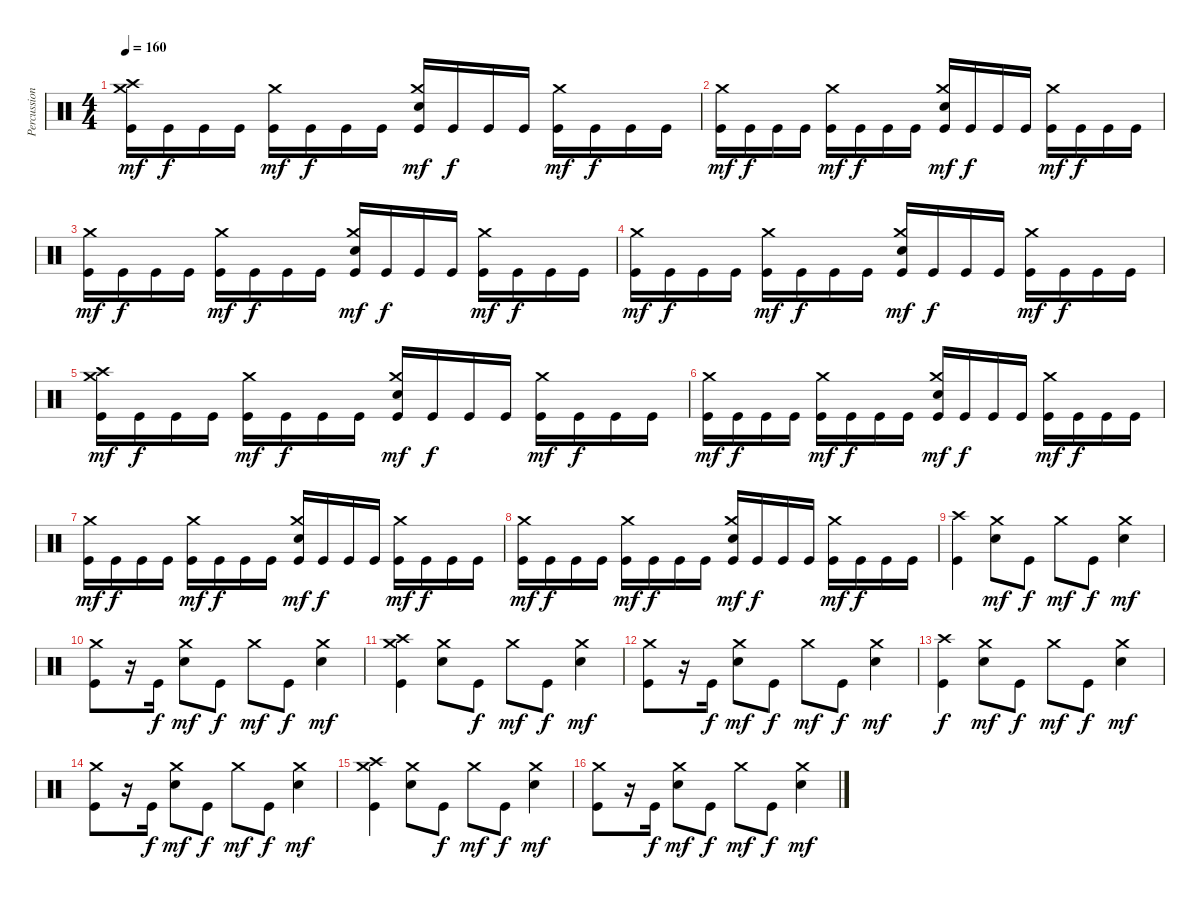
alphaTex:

\track ("Percussion" "Percussion") {instrument percussion}
\staff {score}
\articulation defaults
\ts (4 4)
\tempo 160
\clef neutral
\ks c
("Kick (hit)" "Crash medium (hit)" "Crash high (hit)").16{dy mf} "Kick (hit)".16{dy f} "Kick (hit)".16 "Kick (hit)".16 ("Kick (hit)" "Crash medium (hit)").16{dy mf} "Kick (hit)".16{dy f} "Kick (hit)".16 "Kick (hit)".16 ("Kick (hit)" "Electric Snare (hit)" "Crash medium (hit)").16{dy mf} "Kick (hit)".16{dy f} "Kick (hit)".16 "Kick (hit)".16 ("Kick (hit)" "Crash medium (hit)").16{dy mf} "Kick (hit)".16{dy f} "Kick (hit)".16 "Kick (hit)".16 |
("Kick (hit)" "Crash medium (hit)").16{dy mf} "Kick (hit)".16{dy f} "Kick (hit)".16 "Kick (hit)".16 ("Kick (hit)" "Crash medium (hit)").16{dy mf} "Kick (hit)".16{dy f} "Kick (hit)".16 "Kick (hit)".16 ("Kick (hit)" "Electric Snare (hit)" "Crash medium (hit)").16{dy mf} "Kick (hit)".16{dy f} "Kick (hit)".16 "Kick (hit)".16 ("Kick (hit)" "Crash medium (hit)").16{dy mf} "Kick (hit)".16{dy f} "Kick (hit)".16 "Kick (hit)".16 |
("Kick (hit)" "Crash medium (hit)").16{dy mf} "Kick (hit)".16{dy f} "Kick (hit)".16 "Kick (hit)".16 ("Kick (hit)" "Crash medium (hit)").16{dy mf} "Kick (hit)".16{dy f} "Kick (hit)".16 "Kick (hit)".16 ("Kick (hit)" "Electric Snare (hit)" "Crash medium (hit)").16{dy mf} "Kick (hit)".16{dy f} "Kick (hit)".16 "Kick (hit)".16 ("Kick (hit)" "Crash medium (hit)").16{dy mf} "Kick (hit)".16{dy f} "Kick (hit)".16 "Kick (hit)".16 |
("Kick (hit)" "Crash medium (hit)").16{dy mf} "Kick (hit)".16{dy f} "Kick (hit)".16 "Kick (hit)".16 ("Kick (hit)" "Crash medium (hit)").16{dy mf} "Kick (hit)".16{dy f} "Kick (hit)".16 "Kick (hit)".16 ("Kick (hit)" "Electric Snare (hit)" "Crash medium (hit)").16{dy mf} "Kick (hit)".16{dy f} "Kick (hit)".16 "Kick (hit)".16 ("Kick (hit)" "Crash medium (hit)").16{dy mf} "Kick (hit)".16{dy f} "Kick (hit)".16 "Kick (hit)".16 |
("Kick (hit)" "Crash medium (hit)" "Crash high (hit)").16{dy mf} "Kick (hit)".16{dy f} "Kick (hit)".16 "Kick (hit)".16 ("Kick (hit)" "Crash medium (hit)").16{dy mf} "Kick (hit)".16{dy f} "Kick (hit)".16 "Kick (hit)".16 ("Kick (hit)" "Electric Snare (hit)" "Crash medium (hit)").16{dy mf} "Kick (hit)".16{dy f} "Kick (hit)".16 "Kick (hit)".16 ("Kick (hit)" "Crash medium (hit)").16{dy mf} "Kick (hit)".16{dy f} "Kick (hit)".16 "Kick (hit)".16 |
("Kick (hit)" "Crash medium (hit)").16{dy mf} "Kick (hit)".16{dy f} "Kick (hit)".16 "Kick (hit)".16 ("Kick (hit)" "Crash medium (hit)").16{dy mf} "Kick (hit)".16{dy f} "Kick (hit)".16 "Kick (hit)".16 ("Kick (hit)" "Electric Snare (hit)" "Crash medium (hit)").16{dy mf} "Kick (hit)".16{dy f} "Kick (hit)".16 "Kick (hit)".16 ("Kick (hit)" "Crash medium (hit)").16{dy mf} "Kick (hit)".16{dy f} "Kick (hit)".16 "Kick (hit)".16 |
("Kick (hit)" "Crash medium (hit)").16{dy mf} "Kick (hit)".16{dy f} "Kick (hit)".16 "Kick (hit)".16 ("Kick (hit)" "Crash medium (hit)").16{dy mf} "Kick (hit)".16{dy f} "Kick (hit)".16 "Kick (hit)".16 ("Kick (hit)" "Electric Snare (hit)" "Crash medium (hit)").16{dy mf} "Kick (hit)".16{dy f} "Kick (hit)".16 "Kick (hit)".16 ("Kick (hit)" "Crash medium (hit)").16{dy mf} "Kick (hit)".16{dy f} "Kick (hit)".16 "Kick (hit)".16 |
("Kick (hit)" "Crash medium (hit)").16{dy mf} "Kick (hit)".16{dy f} "Kick (hit)".16 "Kick (hit)".16 ("Kick (hit)" "Crash medium (hit)").16{dy mf} "Kick (hit)".16{dy f} "Kick (hit)".16 "Kick (hit)".16 ("Kick (hit)" "Electric Snare (hit)" "Crash medium (hit)").16{dy mf} "Kick (hit)".16{dy f} "Kick (hit)".16 "Kick (hit)".16 ("Kick (hit)" "Crash medium (hit)").16{dy mf} "Kick (hit)".16{dy f} "Kick (hit)".16 "Kick (hit)".16 |
("Kick (hit)" "Crash high (hit)").4 ("Electric Snare (hit)" "Crash medium (hit)").8{dy mf} "Kick (hit)".8{dy f} "Crash medium (hit)".8{dy mf} "Kick (hit)".8{dy f} ("Electric Snare (hit)" "Crash medium (hit)").4{dy mf} |
("Kick (hit)" "Crash medium (hit)").8 r.16 "Kick (hit)".16{dy f} ("Electric Snare (hit)" "Crash medium (hit)").8{dy mf} "Kick (hit)".8{dy f} "Crash medium (hit)".8{dy mf} "Kick (hit)".8{dy f} ("Electric Snare (hit)" "Crash medium (hit)").4{dy mf} |
("Kick (hit)" "Crash medium (hit)" "Crash high (hit)").4 ("Electric Snare (hit)" "Crash medium (hit)").8 "Kick (hit)".8{dy f} "Crash medium (hit)".8{dy mf} "Kick (hit)".8{dy f} ("Electric Snare (hit)" "Crash medium (hit)").4{dy mf} |
("Kick (hit)" "Crash medium (hit)").8 r.16 "Kick (hit)".16{dy f} ("Electric Snare (hit)" "Crash medium (hit)").8{dy mf} "Kick (hit)".8{dy f} "Crash medium (hit)".8{dy mf} "Kick (hit)".8{dy f} ("Electric Snare (hit)" "Crash medium (hit)").4{dy mf} |
("Kick (hit)" "Crash high (hit)").4{dy f} ("Electric Snare (hit)" "Crash medium (hit)").8{dy mf} "Kick (hit)".8{dy f} "Crash medium (hit)".8{dy mf} "Kick (hit)".8{dy f} ("Electric Snare (hit)" "Crash medium (hit)").4{dy mf} |
("Kick (hit)" "Crash medium (hit)").8 r.16 "Kick (hit)".16{dy f} ("Electric Snare (hit)" "Crash medium (hit)").8{dy mf} "Kick (hit)".8{dy f} "Crash medium (hit)".8{dy mf} "Kick (hit)".8{dy f} ("Electric Snare (hit)" "Crash medium (hit)").4{dy mf} |
("Kick (hit)" "Crash medium (hit)" "Crash high (hit)").4 ("Electric Snare (hit)" "Crash medium (hit)").8 "Kick (hit)".8{dy f} "Crash medium (hit)".8{dy mf} "Kick (hit)".8{dy f} ("Electric Snare (hit)" "Crash medium (hit)").4{dy mf} |
("Kick (hit)" "Crash medium (hit)").8 r.16 "Kick (hit)".16{dy f} ("Electric Snare (hit)" "Crash medium (hit)").8{dy mf} "Kick (hit)".8{dy f} "Crash medium (hit)".8{dy mf} "Kick (hit)".8{dy f} ("Electric Snare (hit)" "Crash medium (hit)").4{dy mf}
